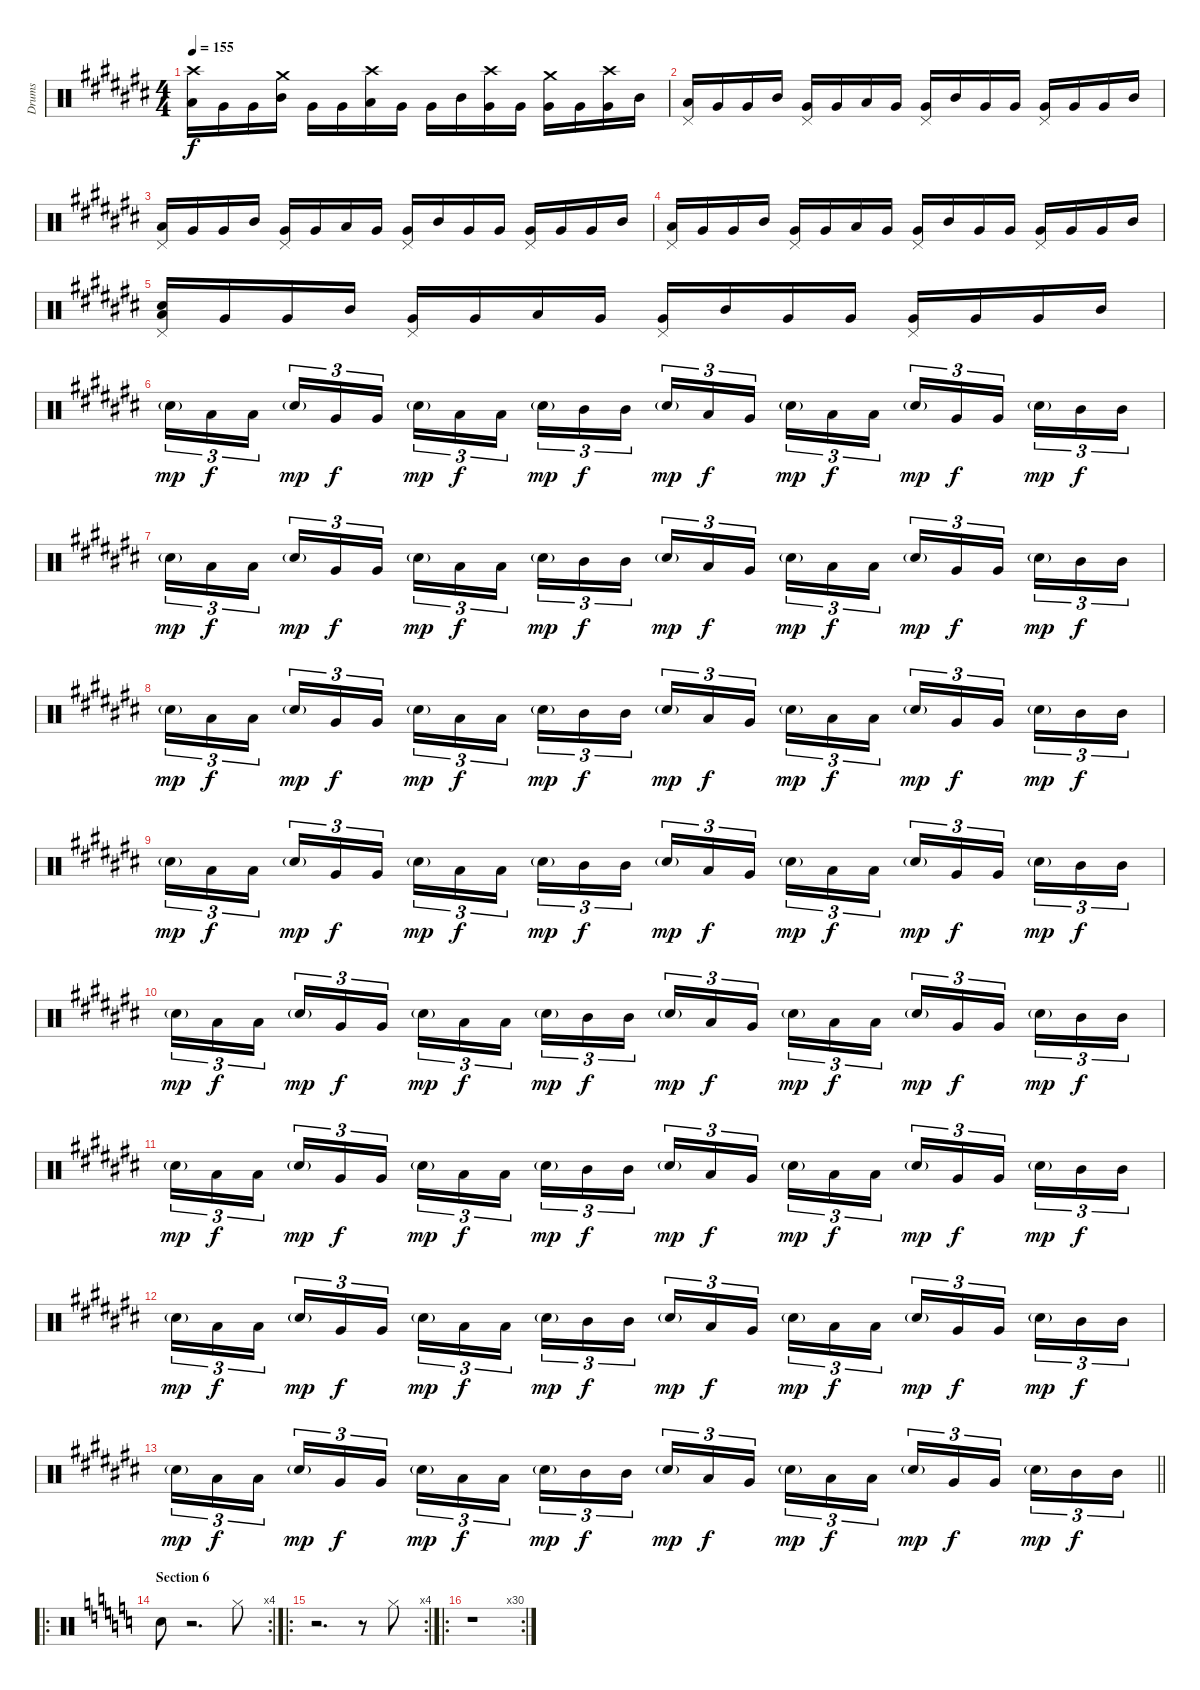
\track ("Drums" "Drums") {instrument percussion}
\staff {score}
\articulation defaults
\ts (4 4)
\tempo 155
\clef neutral
\ks c#
("Crash high (hit)" "Low Tom (hit)").16{dy f} "Very Low Tom (hit)".16 "Very Low Tom (hit)".16 ("Crash medium (hit)" "Mid Tom (hit)").16 "Very Low Tom (hit)".16 "Very Low Tom (hit)".16 ("Crash high (hit)" "Low Tom (hit)").16 "Very Low Tom (hit)".16 "Very Low Tom (hit)".16 "Mid Tom (hit)".16 ("Crash high (hit)" "Very Low Tom (hit)").16 "Very Low Tom (hit)".16 ("Crash medium (hit)" "Very Low Tom (hit)").16 "Very Low Tom (hit)".16 ("Crash high (hit)" "Very Low Tom (hit)").16 "Mid Tom (hit)".16 |
("Pedal Hi-Hat (hit)" "Low Tom (hit)").16 "Very Low Tom (hit)".16 "Very Low Tom (hit)".16 "Mid Tom (hit)".16 ("Pedal Hi-Hat (hit)" "Very Low Tom (hit)").16 "Very Low Tom (hit)".16 "Low Tom (hit)".16 "Very Low Tom (hit)".16 ("Pedal Hi-Hat (hit)" "Very Low Tom (hit)").16 "Mid Tom (hit)".16 "Very Low Tom (hit)".16 "Very Low Tom (hit)".16 ("Pedal Hi-Hat (hit)" "Very Low Tom (hit)").16 "Very Low Tom (hit)".16 "Very Low Tom (hit)".16 "Mid Tom (hit)".16 |
("Pedal Hi-Hat (hit)" "Low Tom (hit)").16 "Very Low Tom (hit)".16 "Very Low Tom (hit)".16 "Mid Tom (hit)".16 ("Pedal Hi-Hat (hit)" "Very Low Tom (hit)").16 "Very Low Tom (hit)".16 "Low Tom (hit)".16 "Very Low Tom (hit)".16 ("Pedal Hi-Hat (hit)" "Very Low Tom (hit)").16 "Mid Tom (hit)".16 "Very Low Tom (hit)".16 "Very Low Tom (hit)".16 ("Pedal Hi-Hat (hit)" "Very Low Tom (hit)").16 "Very Low Tom (hit)".16 "Very Low Tom (hit)".16 "Mid Tom (hit)".16 |
("Pedal Hi-Hat (hit)" "Low Tom (hit)").16 "Very Low Tom (hit)".16 "Very Low Tom (hit)".16 "Mid Tom (hit)".16 ("Pedal Hi-Hat (hit)" "Very Low Tom (hit)").16 "Very Low Tom (hit)".16 "Low Tom (hit)".16 "Very Low Tom (hit)".16 ("Pedal Hi-Hat (hit)" "Very Low Tom (hit)").16 "Mid Tom (hit)".16 "Very Low Tom (hit)".16 "Very Low Tom (hit)".16 ("Pedal Hi-Hat (hit)" "Very Low Tom (hit)").16 "Very Low Tom (hit)".16 "Very Low Tom (hit)".16 "Mid Tom (hit)".16 |
("Pedal Hi-Hat (hit)" "Low Tom (hit)" "Snare (hit) 2").16 "Very Low Tom (hit)".16 "Very Low Tom (hit)".16 "Mid Tom (hit)".16 ("Pedal Hi-Hat (hit)" "Very Low Tom (hit)").16 "Very Low Tom (hit)".16 "Low Tom (hit)".16 "Very Low Tom (hit)".16 ("Pedal Hi-Hat (hit)" "Very Low Tom (hit)").16 "Mid Tom (hit)".16 "Very Low Tom (hit)".16 "Very Low Tom (hit)".16 ("Pedal Hi-Hat (hit)" "Very Low Tom (hit)").16 "Very Low Tom (hit)".16 "Very Low Tom (hit)".16 "Mid Tom (hit)".16 |
"Snare (hit) 2"{g}.16{tu (3 2) dy mp} "Low Tom (hit)".16{tu (3 2) dy f} "Low Tom (hit)".16{tu (3 2) beam splitsecondary} "Snare (hit) 2"{g}.16{tu (3 2) dy mp} "Very Low Tom (hit)".16{tu (3 2) dy f} "Very Low Tom (hit)".16{tu (3 2)} "Snare (hit) 2"{g}.16{tu (3 2) dy mp} "Low Floor Tom (hit)".16{tu (3 2) dy f} "Low Floor Tom (hit)".16{tu (3 2) beam splitsecondary} "Snare (hit) 2"{g}.16{tu (3 2) dy mp} "Mid Tom (hit)".16{tu (3 2) dy f} "Mid Tom (hit)".16{tu (3 2)} "Snare (hit) 2"{g}.16{tu (3 2) dy mp} "Low Tom (hit)".16{tu (3 2) dy f} "Very Low Tom (hit)".16{tu (3 2) beam splitsecondary} "Snare (hit) 2"{g}.16{tu (3 2) dy mp} "Low Tom (hit)".16{tu (3 2) dy f} "Low Tom (hit)".16{tu (3 2)} "Snare (hit) 2"{g}.16{tu (3 2) dy mp} "Very Low Tom (hit)".16{tu (3 2) dy f} "Very Low Tom (hit)".16{tu (3 2) beam splitsecondary} "Snare (hit) 2"{g}.16{tu (3 2) dy mp} "Mid Tom (hit)".16{tu (3 2) dy f} "Mid Tom (hit)".16{tu (3 2)} |
"Snare (hit) 2"{g}.16{tu (3 2) dy mp} "Low Tom (hit)".16{tu (3 2) dy f} "Low Tom (hit)".16{tu (3 2) beam splitsecondary} "Snare (hit) 2"{g}.16{tu (3 2) dy mp} "Very Low Tom (hit)".16{tu (3 2) dy f} "Very Low Tom (hit)".16{tu (3 2)} "Snare (hit) 2"{g}.16{tu (3 2) dy mp} "Low Floor Tom (hit)".16{tu (3 2) dy f} "Low Floor Tom (hit)".16{tu (3 2) beam splitsecondary} "Snare (hit) 2"{g}.16{tu (3 2) dy mp} "Mid Tom (hit)".16{tu (3 2) dy f} "Mid Tom (hit)".16{tu (3 2)} "Snare (hit) 2"{g}.16{tu (3 2) dy mp} "Low Tom (hit)".16{tu (3 2) dy f} "Very Low Tom (hit)".16{tu (3 2) beam splitsecondary} "Snare (hit) 2"{g}.16{tu (3 2) dy mp} "Low Tom (hit)".16{tu (3 2) dy f} "Low Tom (hit)".16{tu (3 2)} "Snare (hit) 2"{g}.16{tu (3 2) dy mp} "Very Low Tom (hit)".16{tu (3 2) dy f} "Very Low Tom (hit)".16{tu (3 2) beam splitsecondary} "Snare (hit) 2"{g}.16{tu (3 2) dy mp} "Mid Tom (hit)".16{tu (3 2) dy f} "Mid Tom (hit)".16{tu (3 2)} |
"Snare (hit) 2"{g}.16{tu (3 2) dy mp} "Low Tom (hit)".16{tu (3 2) dy f} "Low Tom (hit)".16{tu (3 2) beam splitsecondary} "Snare (hit) 2"{g}.16{tu (3 2) dy mp} "Very Low Tom (hit)".16{tu (3 2) dy f} "Very Low Tom (hit)".16{tu (3 2)} "Snare (hit) 2"{g}.16{tu (3 2) dy mp} "Low Floor Tom (hit)".16{tu (3 2) dy f} "Low Floor Tom (hit)".16{tu (3 2) beam splitsecondary} "Snare (hit) 2"{g}.16{tu (3 2) dy mp} "Mid Tom (hit)".16{tu (3 2) dy f} "Mid Tom (hit)".16{tu (3 2)} "Snare (hit) 2"{g}.16{tu (3 2) dy mp} "Low Tom (hit)".16{tu (3 2) dy f} "Very Low Tom (hit)".16{tu (3 2) beam splitsecondary} "Snare (hit) 2"{g}.16{tu (3 2) dy mp} "Low Tom (hit)".16{tu (3 2) dy f} "Low Tom (hit)".16{tu (3 2)} "Snare (hit) 2"{g}.16{tu (3 2) dy mp} "Very Low Tom (hit)".16{tu (3 2) dy f} "Very Low Tom (hit)".16{tu (3 2) beam splitsecondary} "Snare (hit) 2"{g}.16{tu (3 2) dy mp} "Mid Tom (hit)".16{tu (3 2) dy f} "Mid Tom (hit)".16{tu (3 2)} |
"Snare (hit) 2"{g}.16{tu (3 2) dy mp} "Low Tom (hit)".16{tu (3 2) dy f} "Low Tom (hit)".16{tu (3 2) beam splitsecondary} "Snare (hit) 2"{g}.16{tu (3 2) dy mp} "Very Low Tom (hit)".16{tu (3 2) dy f} "Very Low Tom (hit)".16{tu (3 2)} "Snare (hit) 2"{g}.16{tu (3 2) dy mp} "Low Floor Tom (hit)".16{tu (3 2) dy f} "Low Floor Tom (hit)".16{tu (3 2) beam splitsecondary} "Snare (hit) 2"{g}.16{tu (3 2) dy mp} "Mid Tom (hit)".16{tu (3 2) dy f} "Mid Tom (hit)".16{tu (3 2)} "Snare (hit) 2"{g}.16{tu (3 2) dy mp} "Low Tom (hit)".16{tu (3 2) dy f} "Very Low Tom (hit)".16{tu (3 2) beam splitsecondary} "Snare (hit) 2"{g}.16{tu (3 2) dy mp} "Low Tom (hit)".16{tu (3 2) dy f} "Low Tom (hit)".16{tu (3 2)} "Snare (hit) 2"{g}.16{tu (3 2) dy mp} "Very Low Tom (hit)".16{tu (3 2) dy f} "Very Low Tom (hit)".16{tu (3 2) beam splitsecondary} "Snare (hit) 2"{g}.16{tu (3 2) dy mp} "Mid Tom (hit)".16{tu (3 2) dy f} "Mid Tom (hit)".16{tu (3 2)} |
"Snare (hit) 2"{g}.16{tu (3 2) dy mp} "Low Tom (hit)".16{tu (3 2) dy f} "Low Tom (hit)".16{tu (3 2) beam splitsecondary} "Snare (hit) 2"{g}.16{tu (3 2) dy mp} "Very Low Tom (hit)".16{tu (3 2) dy f} "Very Low Tom (hit)".16{tu (3 2)} "Snare (hit) 2"{g}.16{tu (3 2) dy mp} "Low Floor Tom (hit)".16{tu (3 2) dy f} "Low Floor Tom (hit)".16{tu (3 2) beam splitsecondary} "Snare (hit) 2"{g}.16{tu (3 2) dy mp} "Mid Tom (hit)".16{tu (3 2) dy f} "Mid Tom (hit)".16{tu (3 2)} "Snare (hit) 2"{g}.16{tu (3 2) dy mp} "Low Tom (hit)".16{tu (3 2) dy f} "Very Low Tom (hit)".16{tu (3 2) beam splitsecondary} "Snare (hit) 2"{g}.16{tu (3 2) dy mp} "Low Tom (hit)".16{tu (3 2) dy f} "Low Tom (hit)".16{tu (3 2)} "Snare (hit) 2"{g}.16{tu (3 2) dy mp} "Very Low Tom (hit)".16{tu (3 2) dy f} "Very Low Tom (hit)".16{tu (3 2) beam splitsecondary} "Snare (hit) 2"{g}.16{tu (3 2) dy mp} "Mid Tom (hit)".16{tu (3 2) dy f} "Mid Tom (hit)".16{tu (3 2)} |
"Snare (hit) 2"{g}.16{tu (3 2) dy mp} "Low Tom (hit)".16{tu (3 2) dy f} "Low Tom (hit)".16{tu (3 2) beam splitsecondary} "Snare (hit) 2"{g}.16{tu (3 2) dy mp} "Very Low Tom (hit)".16{tu (3 2) dy f} "Very Low Tom (hit)".16{tu (3 2)} "Snare (hit) 2"{g}.16{tu (3 2) dy mp} "Low Floor Tom (hit)".16{tu (3 2) dy f} "Low Floor Tom (hit)".16{tu (3 2) beam splitsecondary} "Snare (hit) 2"{g}.16{tu (3 2) dy mp} "Mid Tom (hit)".16{tu (3 2) dy f} "Mid Tom (hit)".16{tu (3 2)} "Snare (hit) 2"{g}.16{tu (3 2) dy mp} "Low Tom (hit)".16{tu (3 2) dy f} "Very Low Tom (hit)".16{tu (3 2) beam splitsecondary} "Snare (hit) 2"{g}.16{tu (3 2) dy mp} "Low Tom (hit)".16{tu (3 2) dy f} "Low Tom (hit)".16{tu (3 2)} "Snare (hit) 2"{g}.16{tu (3 2) dy mp} "Very Low Tom (hit)".16{tu (3 2) dy f} "Very Low Tom (hit)".16{tu (3 2) beam splitsecondary} "Snare (hit) 2"{g}.16{tu (3 2) dy mp} "Mid Tom (hit)".16{tu (3 2) dy f} "Mid Tom (hit)".16{tu (3 2)} |
"Snare (hit) 2"{g}.16{tu (3 2) dy mp} "Low Tom (hit)".16{tu (3 2) dy f} "Low Tom (hit)".16{tu (3 2) beam splitsecondary} "Snare (hit) 2"{g}.16{tu (3 2) dy mp} "Very Low Tom (hit)".16{tu (3 2) dy f} "Very Low Tom (hit)".16{tu (3 2)} "Snare (hit) 2"{g}.16{tu (3 2) dy mp} "Low Floor Tom (hit)".16{tu (3 2) dy f} "Low Floor Tom (hit)".16{tu (3 2) beam splitsecondary} "Snare (hit) 2"{g}.16{tu (3 2) dy mp} "Mid Tom (hit)".16{tu (3 2) dy f} "Mid Tom (hit)".16{tu (3 2)} "Snare (hit) 2"{g}.16{tu (3 2) dy mp} "Low Tom (hit)".16{tu (3 2) dy f} "Very Low Tom (hit)".16{tu (3 2) beam splitsecondary} "Snare (hit) 2"{g}.16{tu (3 2) dy mp} "Low Tom (hit)".16{tu (3 2) dy f} "Low Tom (hit)".16{tu (3 2)} "Snare (hit) 2"{g}.16{tu (3 2) dy mp} "Very Low Tom (hit)".16{tu (3 2) dy f} "Very Low Tom (hit)".16{tu (3 2) beam splitsecondary} "Snare (hit) 2"{g}.16{tu (3 2) dy mp} "Mid Tom (hit)".16{tu (3 2) dy f} "Mid Tom (hit)".16{tu (3 2)} |
\barLineRight lightlight "Snare (hit) 2"{g}.16{tu (3 2) dy mp} "Low Tom (hit)".16{tu (3 2) dy f} "Low Tom (hit)".16{tu (3 2) beam splitsecondary} "Snare (hit) 2"{g}.16{tu (3 2) dy mp} "Very Low Tom (hit)".16{tu (3 2) dy f} "Very Low Tom (hit)".16{tu (3 2)} "Snare (hit) 2"{g}.16{tu (3 2) dy mp} "Low Floor Tom (hit)".16{tu (3 2) dy f} "Low Floor Tom (hit)".16{tu (3 2) beam splitsecondary} "Snare (hit) 2"{g}.16{tu (3 2) dy mp} "Mid Tom (hit)".16{tu (3 2) dy f} "Mid Tom (hit)".16{tu (3 2)} "Snare (hit) 2"{g}.16{tu (3 2) dy mp} "Low Tom (hit)".16{tu (3 2) dy f} "Very Low Tom (hit)".16{tu (3 2) beam splitsecondary} "Snare (hit) 2"{g}.16{tu (3 2) dy mp} "Low Tom (hit)".16{tu (3 2) dy f} "Low Tom (hit)".16{tu (3 2)} "Snare (hit) 2"{g}.16{tu (3 2) dy mp} "Very Low Tom (hit)".16{tu (3 2) dy f} "Very Low Tom (hit)".16{tu (3 2) beam splitsecondary} "Snare (hit) 2"{g}.16{tu (3 2) dy mp} "Mid Tom (hit)".16{tu (3 2) dy f} "Mid Tom (hit)".16{tu (3 2)}
|
\ro
\rc 4
\section ("" "Section 6")
\ks c "Snare (hit) 2".8
r.2{d} "Hi-Hat (closed)".8 |
\ro
\rc 4
r.2{d} r.8 "Hi-Hat (closed)".8 |
\ro
\rc 30
r.1
